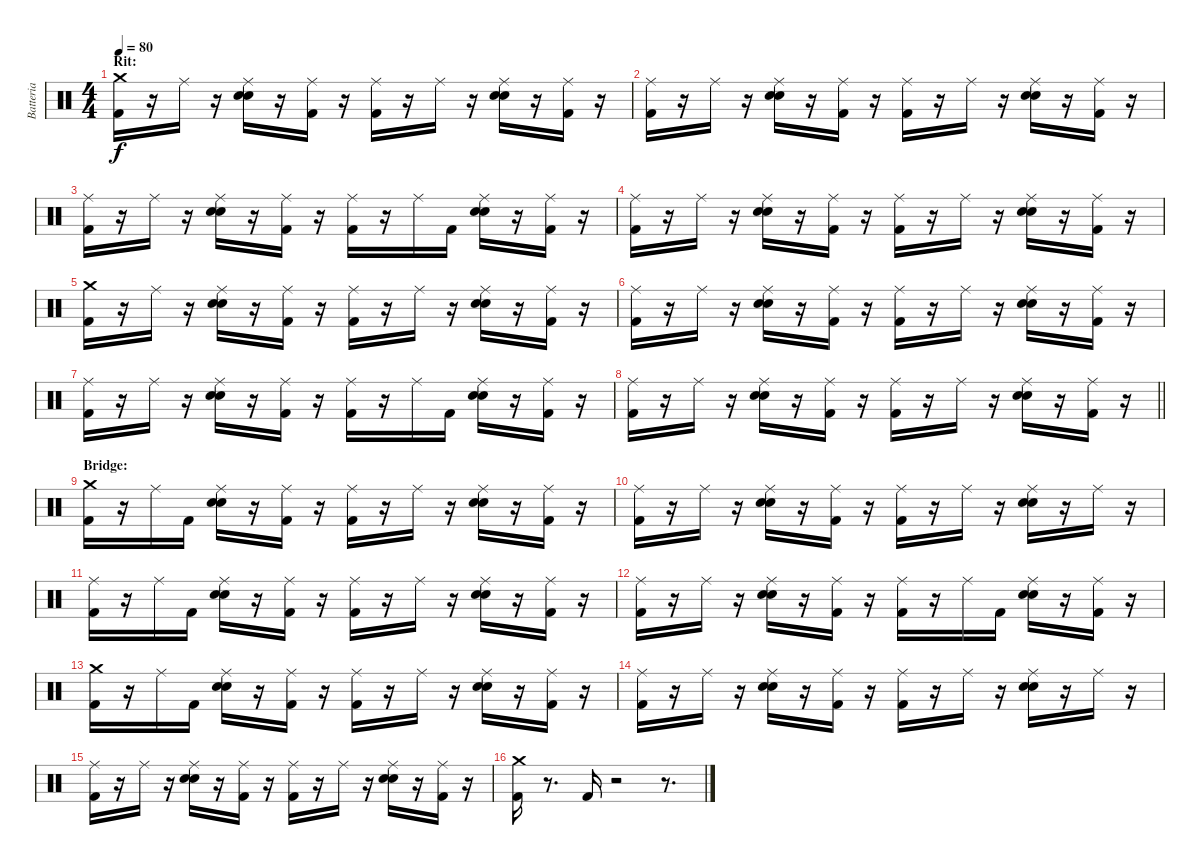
\track ("Batteria" "Batteria") {instrument percussion}
\staff {score}
\articulation defaults
\ts (4 4)
\section ("" "Rit:")
\tempo 80
\clef neutral
\ks c
("Kick (hit) 2" "Crash medium (hit)").16{dy f} r.16 "Ride (middle)".16 r.16 ("Snare (hit) 2" "Snare (hit) 2" "Ride (middle)").16 r.16 ("Kick (hit) 2" "Ride (middle)").16 r.16 ("Kick (hit) 2" "Ride (middle)").16 r.16 "Ride (middle)".16 r.16 ("Snare (hit) 2" "Snare (hit) 2" "Ride (middle)").16 r.16 ("Kick (hit) 2" "Ride (middle)").16 r.16 |
("Kick (hit) 2" "Ride (middle)").16 r.16 "Ride (middle)".16 r.16 ("Snare (hit) 2" "Snare (hit) 2" "Ride (middle)").16 r.16 ("Kick (hit) 2" "Ride (middle)").16 r.16 ("Kick (hit) 2" "Ride (middle)").16 r.16 "Ride (middle)".16 r.16 ("Snare (hit) 2" "Snare (hit) 2" "Ride (middle)").16 r.16 ("Kick (hit) 2" "Ride (middle)").16 r.16 |
("Kick (hit) 2" "Ride (middle)").16 r.16 "Ride (middle)".16 r.16 ("Snare (hit) 2" "Snare (hit) 2" "Ride (middle)").16 r.16 ("Kick (hit) 2" "Ride (middle)").16 r.16 ("Kick (hit) 2" "Ride (middle)").16 r.16 "Ride (middle)".16 "Kick (hit) 2".16 ("Snare (hit) 2" "Snare (hit) 2" "Ride (middle)").16 r.16 ("Kick (hit) 2" "Ride (middle)").16 r.16 |
("Kick (hit) 2" "Ride (middle)").16 r.16 "Ride (middle)".16 r.16 ("Snare (hit) 2" "Snare (hit) 2" "Ride (middle)").16 r.16 ("Kick (hit) 2" "Ride (middle)").16 r.16 ("Kick (hit) 2" "Ride (middle)").16 r.16 "Ride (middle)".16 r.16 ("Snare (hit) 2" "Snare (hit) 2" "Ride (middle)").16 r.16 ("Kick (hit) 2" "Ride (middle)").16 r.16 |
("Kick (hit) 2" "Crash medium (hit)").16 r.16 "Ride (middle)".16 r.16 ("Snare (hit) 2" "Snare (hit) 2" "Ride (middle)").16 r.16 ("Kick (hit) 2" "Ride (middle)").16 r.16 ("Kick (hit) 2" "Ride (middle)").16 r.16 "Ride (middle)".16 r.16 ("Snare (hit) 2" "Snare (hit) 2" "Ride (middle)").16 r.16 ("Kick (hit) 2" "Ride (middle)").16 r.16 |
("Kick (hit) 2" "Ride (middle)").16 r.16 "Ride (middle)".16 r.16 ("Snare (hit) 2" "Snare (hit) 2" "Ride (middle)").16 r.16 ("Kick (hit) 2" "Ride (middle)").16 r.16 ("Kick (hit) 2" "Ride (middle)").16 r.16 "Ride (middle)".16 r.16 ("Snare (hit) 2" "Snare (hit) 2" "Ride (middle)").16 r.16 ("Kick (hit) 2" "Ride (middle)").16 r.16 |
("Kick (hit) 2" "Ride (middle)").16 r.16 "Ride (middle)".16 r.16 ("Snare (hit) 2" "Snare (hit) 2" "Ride (middle)").16 r.16 ("Kick (hit) 2" "Ride (middle)").16 r.16 ("Kick (hit) 2" "Ride (middle)").16 r.16 "Ride (middle)".16 "Kick (hit) 2".16 ("Snare (hit) 2" "Snare (hit) 2" "Ride (middle)").16 r.16 ("Kick (hit) 2" "Ride (middle)").16 r.16 |
\barLineRight lightlight
("Kick (hit) 2" "Ride (middle)").16 r.16 "Ride (middle)".16 r.16 ("Snare (hit) 2" "Snare (hit) 2" "Ride (middle)").16 r.16 ("Kick (hit) 2" "Ride (middle)").16 r.16 ("Kick (hit) 2" "Ride (middle)").16 r.16 "Ride (middle)".16 r.16 ("Snare (hit) 2" "Snare (hit) 2" "Ride (middle)").16 r.16 ("Kick (hit) 2" "Ride (middle)").16 r.16 |
\section ("" "Bridge:")
("Kick (hit) 2" "Crash medium (hit)").16 r.16 "Ride (middle)".16 "Kick (hit) 2".16 ("Snare (hit) 2" "Snare (hit) 2" "Ride (middle)").16 r.16 ("Kick (hit) 2" "Ride (middle)").16 r.16 ("Kick (hit) 2" "Ride (middle)").16 r.16 "Ride (middle)".16 r.16 ("Snare (hit) 2" "Snare (hit) 2" "Ride (middle)").16 r.16 ("Kick (hit) 2" "Ride (middle)").16 r.16 |
("Kick (hit) 2" "Ride (middle)").16 r.16 "Ride (middle)".16 r.16 ("Snare (hit) 2" "Snare (hit) 2" "Ride (middle)").16 r.16 ("Kick (hit) 2" "Ride (middle)").16 r.16 ("Kick (hit) 2" "Ride (middle)").16 r.16 "Ride (middle)".16 r.16 ("Snare (hit) 2" "Snare (hit) 2" "Ride (middle)").16 r.16 "Ride (middle)".16 r.16 |
("Kick (hit) 2" "Ride (middle)").16 r.16 "Ride (middle)".16 "Kick (hit) 2".16 ("Snare (hit) 2" "Snare (hit) 2" "Ride (middle)").16 r.16 ("Kick (hit) 2" "Ride (middle)").16 r.16 ("Kick (hit) 2" "Ride (middle)").16 r.16 "Ride (middle)".16 r.16 ("Snare (hit) 2" "Snare (hit) 2" "Ride (middle)").16 r.16 ("Kick (hit) 2" "Ride (middle)").16 r.16 |
("Kick (hit) 2" "Ride (middle)").16 r.16 "Ride (middle)".16 r.16 ("Snare (hit) 2" "Snare (hit) 2" "Ride (middle)").16 r.16 ("Kick (hit) 2" "Ride (middle)").16 r.16 ("Kick (hit) 2" "Ride (middle)").16 r.16 "Ride (middle)".16 "Kick (hit) 2".16 ("Snare (hit) 2" "Snare (hit) 2" "Ride (middle)").16 r.16 ("Kick (hit) 2" "Ride (middle)").16 r.16 |
("Kick (hit) 2" "Crash medium (hit)").16 r.16 "Ride (middle)".16 "Kick (hit) 2".16 ("Snare (hit) 2" "Snare (hit) 2" "Ride (middle)").16 r.16 ("Kick (hit) 2" "Ride (middle)").16 r.16 ("Kick (hit) 2" "Ride (middle)").16 r.16 "Ride (middle)".16 r.16 ("Snare (hit) 2" "Snare (hit) 2" "Ride (middle)").16 r.16 ("Kick (hit) 2" "Ride (middle)").16 r.16 |
("Kick (hit) 2" "Ride (middle)").16 r.16 "Ride (middle)".16 r.16 ("Snare (hit) 2" "Snare (hit) 2" "Ride (middle)").16 r.16 ("Kick (hit) 2" "Ride (middle)").16 r.16 ("Kick (hit) 2" "Ride (middle)").16 r.16 "Ride (middle)".16 r.16 ("Snare (hit) 2" "Snare (hit) 2" "Ride (middle)").16 r.16 "Ride (middle)".16 r.16 |
("Kick (hit) 2" "Ride (middle)").16 r.16 "Ride (middle)".16 r.16 ("Snare (hit) 2" "Snare (hit) 2" "Ride (middle)").16 r.16 ("Kick (hit) 2" "Ride (middle)").16 r.16 ("Kick (hit) 2" "Ride (middle)").16 r.16 "Ride (middle)".16 r.16 ("Snare (hit) 2" "Snare (hit) 2" "Ride (middle)").16 r.16 ("Kick (hit) 2" "Ride (middle)").16 r.16 |
("Kick (hit) 2" "Crash medium (hit)").16 r.8{d} "Kick (hit) 2".16 r.2 r.8{d}
